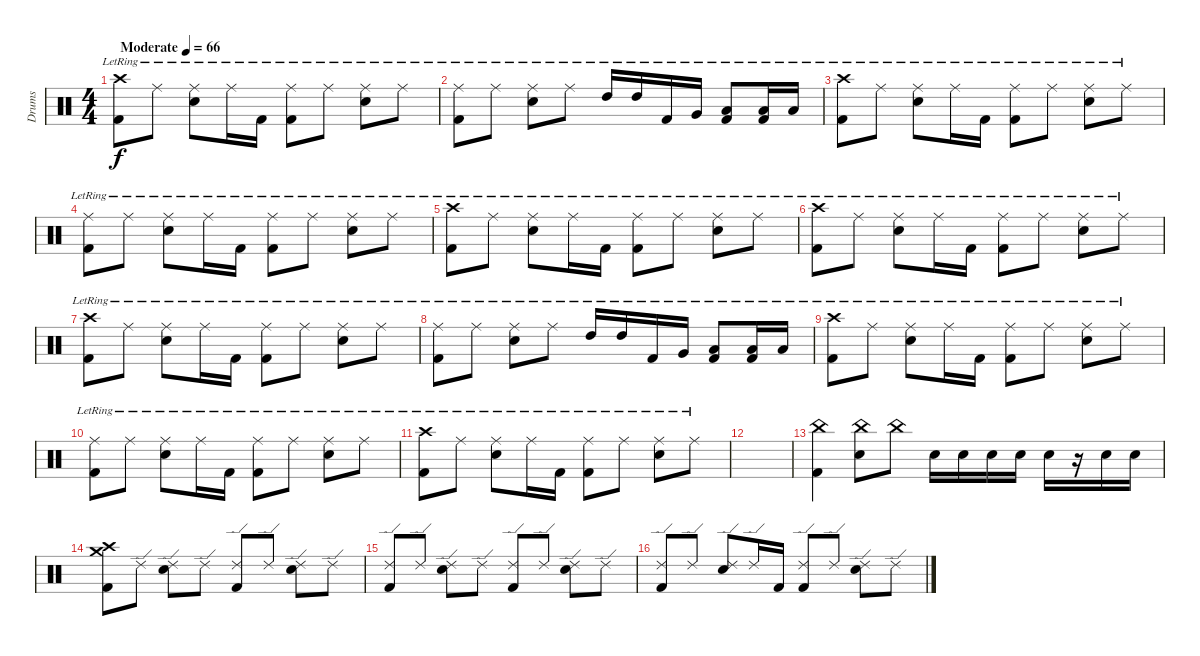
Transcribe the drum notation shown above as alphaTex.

\track ("Drums" "Drums") {instrument percussion}
\staff {score}
\articulation defaults
\ts (4 4)
\tempo (66 "Moderate")
\clef neutral
\ks c
("Crash high (hit)"{lr} "Kick (hit) 2"{lr}).8{dy f} "Ride (middle)"{lr}.8 ("Snare (hit) 2"{lr} "Ride (middle)"{lr}).8 "Ride (middle)"{lr}.16 "Kick (hit) 2"{lr}.16 ("Kick (hit) 2"{lr} "Ride (middle)"{lr}).8 "Ride (middle)"{lr}.8 ("Snare (hit) 2"{lr} "Ride (middle)"{lr}).8 "Ride (middle)"{lr}.8 |
("Kick (hit) 2"{lr} "Ride (middle)"{lr}).8 "Ride (middle)"{lr}.8 ("Snare (hit) 2"{lr} "Ride (middle)"{lr}).8 "Ride (middle)"{lr}.8 "High Tom (hit)"{lr}.16 "High Tom (hit)"{lr}.16 "Kick (hit) 2"{lr}.16 "Very Low Tom (hit)"{lr}.16 ("Kick (hit) 2"{lr} "Low Floor Tom (hit)"{lr}).8 ("Low Floor Tom (hit)"{lr} "Kick (hit) 2"{lr}).16 "Low Floor Tom (hit)"{lr}.16 |
("Crash high (hit)"{lr} "Kick (hit) 2"{lr}).8 "Ride (middle)"{lr}.8 ("Snare (hit) 2"{lr} "Ride (middle)"{lr}).8 "Ride (middle)"{lr}.16 "Kick (hit) 2"{lr}.16 ("Kick (hit) 2"{lr} "Ride (middle)"{lr}).8 "Ride (middle)"{lr}.8 ("Snare (hit) 2"{lr} "Ride (middle)"{lr}).8 "Ride (middle)"{lr}.8 |
("Ride (middle)"{lr} "Kick (hit) 2"{lr}).8 "Ride (middle)"{lr}.8 ("Snare (hit) 2"{lr} "Ride (middle)"{lr}).8 "Ride (middle)"{lr}.16 "Kick (hit) 2"{lr}.16 ("Kick (hit) 2"{lr} "Ride (middle)"{lr}).8 "Ride (middle)"{lr}.8 ("Snare (hit) 2"{lr} "Ride (middle)"{lr}).8 "Ride (middle)"{lr}.8 |
("Crash high (hit)"{lr} "Kick (hit) 2"{lr}).8 "Ride (middle)"{lr}.8 ("Snare (hit) 2"{lr} "Ride (middle)"{lr}).8 "Ride (middle)"{lr}.16 "Kick (hit) 2"{lr}.16 ("Kick (hit) 2"{lr} "Ride (middle)"{lr}).8 "Ride (middle)"{lr}.8 ("Snare (hit) 2"{lr} "Ride (middle)"{lr}).8 "Ride (middle)"{lr}.8 |
("Crash high (hit)"{lr} "Kick (hit) 2"{lr}).8 "Ride (middle)"{lr}.8 ("Snare (hit) 2"{lr} "Ride (middle)"{lr}).8 "Ride (middle)"{lr}.16 "Kick (hit) 2"{lr}.16 ("Kick (hit) 2"{lr} "Ride (middle)"{lr}).8 "Ride (middle)"{lr}.8 ("Snare (hit) 2"{lr} "Ride (middle)"{lr}).8 "Ride (middle)"{lr}.8 |
("Crash high (hit)"{lr} "Kick (hit) 2"{lr}).8 "Ride (middle)"{lr}.8 ("Snare (hit) 2"{lr} "Ride (middle)"{lr}).8 "Ride (middle)"{lr}.16 "Kick (hit) 2"{lr}.16 ("Kick (hit) 2"{lr} "Ride (middle)"{lr}).8 "Ride (middle)"{lr}.8 ("Snare (hit) 2"{lr} "Ride (middle)"{lr}).8 "Ride (middle)"{lr}.8 |
("Kick (hit) 2"{lr} "Ride (middle)"{lr}).8 "Ride (middle)"{lr}.8 ("Snare (hit) 2"{lr} "Ride (middle)"{lr}).8 "Ride (middle)"{lr}.8 "High Tom (hit)"{lr}.16 "High Tom (hit)"{lr}.16 "Kick (hit) 2"{lr}.16 "Very Low Tom (hit)"{lr}.16 ("Kick (hit) 2"{lr} "Low Floor Tom (hit)"{lr}).8 ("Low Floor Tom (hit)"{lr} "Kick (hit) 2"{lr}).16 "Low Floor Tom (hit)"{lr}.16 |
("Crash high (hit)"{lr} "Kick (hit) 2"{lr}).8 "Ride (middle)"{lr}.8 ("Snare (hit) 2"{lr} "Ride (middle)"{lr}).8 "Ride (middle)"{lr}.16 "Kick (hit) 2"{lr}.16 ("Kick (hit) 2"{lr} "Ride (middle)"{lr}).8 "Ride (middle)"{lr}.8 ("Snare (hit) 2"{lr} "Ride (middle)"{lr}).8 "Ride (middle)"{lr}.8 |
("Ride (middle)"{lr} "Kick (hit) 2"{lr}).8 "Ride (middle)"{lr}.8 ("Snare (hit) 2"{lr} "Ride (middle)"{lr}).8 "Ride (middle)"{lr}.16 "Kick (hit) 2"{lr}.16 ("Kick (hit) 2"{lr} "Ride (middle)"{lr}).8 "Ride (middle)"{lr}.8 ("Snare (hit) 2"{lr} "Ride (middle)"{lr}).8 "Ride (middle)"{lr}.8 |
("Crash high (hit)"{lr} "Kick (hit) 2"{lr}).8 "Ride (middle)"{lr}.8 ("Snare (hit) 2"{lr} "Ride (middle)"{lr}).8 "Ride (middle)"{lr}.16 "Kick (hit) 2"{lr}.16 ("Kick (hit) 2"{lr} "Ride (middle)"{lr}).8 "Ride (middle)"{lr}.8 ("Snare (hit) 2"{lr} "Ride (middle)"{lr}).8 "Ride (middle)"{lr}.8 |
|
("China (hit)" "Kick (hit) 2").4 ("China (hit)" "Snare (hit) 2").8 "China (hit)".8 "Snare (hit) 2".16 "Snare (hit) 2".16 "Snare (hit) 2".16 "Snare (hit) 2".16 "Snare (hit) 2".16 r.16 "Snare (hit) 2".16 "Snare (hit) 2".16 |
("Crash medium (hit)" "Crash high (hit)" "Kick (hit) 2").8 "Ride (edge) 2".8 ("Ride (edge) 2" "Snare (hit) 2").8 "Ride (edge) 2".8 ("Ride (edge) 2" "Kick (hit) 2").8 "Ride (edge) 2".8 ("Ride (edge) 2" "Snare (hit) 2").8 "Ride (edge) 2".8 |
("Ride (edge) 2" "Kick (hit) 2").8 "Ride (edge) 2".8 ("Ride (edge) 2" "Snare (hit) 2").8 "Ride (edge) 2".8 ("Ride (edge) 2" "Kick (hit) 2").8 "Ride (edge) 2".8 ("Ride (edge) 2" "Snare (hit) 2").8 "Ride (edge) 2".8 |
("Ride (edge) 2" "Kick (hit) 2").8 "Ride (edge) 2".8 ("Ride (edge) 2" "Snare (hit) 2").8 "Ride (edge) 2".16 "Kick (hit) 2".16 ("Ride (edge) 2" "Kick (hit) 2").8 "Ride (edge) 2".8 ("Ride (edge) 2" "Snare (hit) 2").8 "Ride (edge) 2".8
